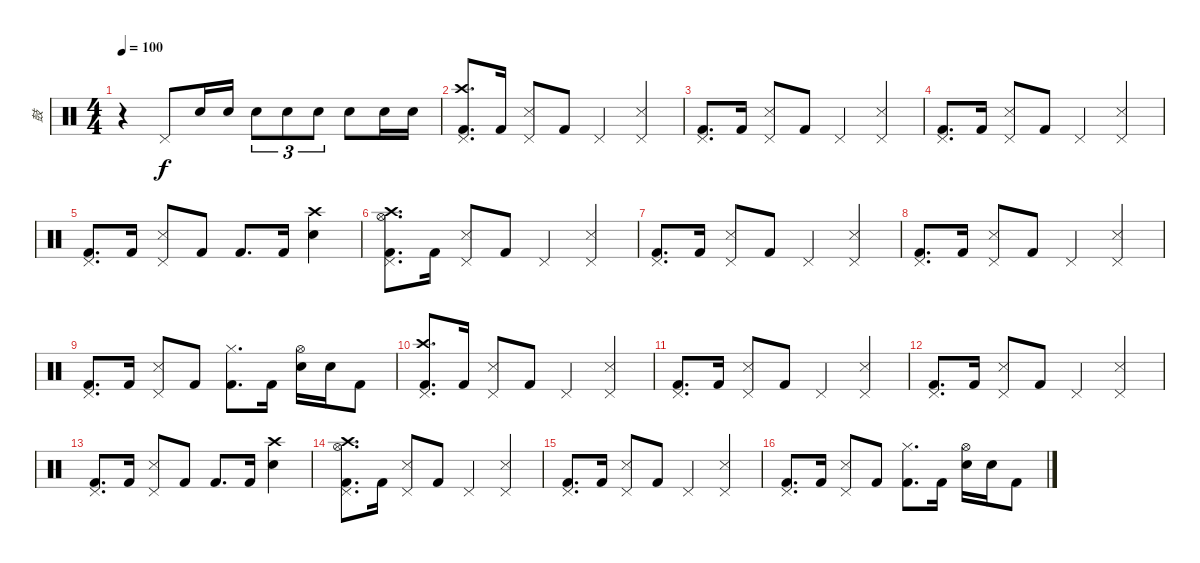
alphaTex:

\track ("鼓" "鼓") {instrument percussion}
\staff {score}
\articulation defaults
\ts (4 4)
\tempo 100
\clef neutral
\ks c
r.4{dy f} "Pedal Hi-Hat (hit)".8 "Snare (hit) 2".16 "Snare (hit) 2".16 "Snare (hit) 2".8{tu (3 2)} "Snare (hit) 2".8{tu (3 2)} "Snare (hit) 2".8{tu (3 2)} "Snare (hit) 2".8 "Electric Snare (hit)".16 "Electric Snare (hit)".16 |
("Crash high (hit)" "Pedal Hi-Hat (hit)" "Kick (hit) 2").8{d} "Kick (hit) 2".16 ("Pedal Hi-Hat (hit)" "Metronome (hit)").8 "Kick (hit) 2".8 "Pedal Hi-Hat (hit)".4 ("Pedal Hi-Hat (hit)" "Metronome (hit)").4 |
("Pedal Hi-Hat (hit)" "Kick (hit) 2").8{d} "Kick (hit) 2".16 ("Pedal Hi-Hat (hit)" "Metronome (hit)").8 "Kick (hit) 2".8 "Pedal Hi-Hat (hit)".4 ("Pedal Hi-Hat (hit)" "Metronome (hit)").4 |
("Pedal Hi-Hat (hit)" "Kick (hit) 2").8{d} "Kick (hit) 2".16 ("Pedal Hi-Hat (hit)" "Metronome (hit)").8 "Kick (hit) 2".8 "Pedal Hi-Hat (hit)".4 ("Pedal Hi-Hat (hit)" "Metronome (hit)").4 |
("Pedal Hi-Hat (hit)" "Kick (hit) 2").8{d} "Kick (hit) 2".16 ("Pedal Hi-Hat (hit)" "Metronome (hit)").8 "Kick (hit) 2".8 "Kick (hit) 2".8{d} "Kick (hit) 2".16 ("Crash high (hit)" "Electric Snare (hit)").4 |
("Crash high (hit)" "Hi-Hat (open)" "Pedal Hi-Hat (hit)" "Kick (hit) 2").8{d} "Kick (hit) 2".16 ("Pedal Hi-Hat (hit)" "Metronome (hit)").8 "Kick (hit) 2".8 "Pedal Hi-Hat (hit)".4 ("Pedal Hi-Hat (hit)" "Metronome (hit)").4 |
("Pedal Hi-Hat (hit)" "Kick (hit) 2").8{d} "Kick (hit) 2".16 ("Pedal Hi-Hat (hit)" "Metronome (hit)").8 "Kick (hit) 2".8 "Pedal Hi-Hat (hit)".4 ("Pedal Hi-Hat (hit)" "Metronome (hit)").4 |
("Pedal Hi-Hat (hit)" "Kick (hit) 2").8{d} "Kick (hit) 2".16 ("Pedal Hi-Hat (hit)" "Metronome (hit)").8 "Kick (hit) 2".8 "Pedal Hi-Hat (hit)".4 ("Pedal Hi-Hat (hit)" "Metronome (hit)").4 |
("Pedal Hi-Hat (hit)" "Kick (hit) 2").8{d} "Kick (hit) 2".16 ("Pedal Hi-Hat (hit)" "Metronome (hit)").8 "Kick (hit) 2".8 ("Hi-Hat (closed)" "Kick (hit) 2").8{d} "Kick (hit) 2".16 ("Hi-Hat (open)" "Electric Snare (hit)").16 "Snare (hit) 2".16 "Kick (hit) 2".8 |
("Crash high (hit)" "Pedal Hi-Hat (hit)" "Kick (hit) 2").8{d} "Kick (hit) 2".16 ("Pedal Hi-Hat (hit)" "Metronome (hit)").8 "Kick (hit) 2".8 "Pedal Hi-Hat (hit)".4 ("Pedal Hi-Hat (hit)" "Metronome (hit)").4 |
("Pedal Hi-Hat (hit)" "Kick (hit) 2").8{d} "Kick (hit) 2".16 ("Pedal Hi-Hat (hit)" "Metronome (hit)").8 "Kick (hit) 2".8 "Pedal Hi-Hat (hit)".4 ("Pedal Hi-Hat (hit)" "Metronome (hit)").4 |
("Pedal Hi-Hat (hit)" "Kick (hit) 2").8{d} "Kick (hit) 2".16 ("Pedal Hi-Hat (hit)" "Metronome (hit)").8 "Kick (hit) 2".8 "Pedal Hi-Hat (hit)".4 ("Pedal Hi-Hat (hit)" "Metronome (hit)").4 |
("Pedal Hi-Hat (hit)" "Kick (hit) 2").8{d} "Kick (hit) 2".16 ("Pedal Hi-Hat (hit)" "Metronome (hit)").8 "Kick (hit) 2".8 "Kick (hit) 2".8{d} "Kick (hit) 2".16 ("Crash high (hit)" "Electric Snare (hit)").4 |
("Crash high (hit)" "Hi-Hat (open)" "Pedal Hi-Hat (hit)" "Kick (hit) 2").8{d} "Kick (hit) 2".16 ("Pedal Hi-Hat (hit)" "Metronome (hit)").8 "Kick (hit) 2".8 "Pedal Hi-Hat (hit)".4 ("Pedal Hi-Hat (hit)" "Metronome (hit)").4 |
("Pedal Hi-Hat (hit)" "Kick (hit) 2").8{d} "Kick (hit) 2".16 ("Pedal Hi-Hat (hit)" "Metronome (hit)").8 "Kick (hit) 2".8 "Pedal Hi-Hat (hit)".4 ("Pedal Hi-Hat (hit)" "Metronome (hit)").4 |
("Pedal Hi-Hat (hit)" "Kick (hit) 2").8{d} "Kick (hit) 2".16 ("Pedal Hi-Hat (hit)" "Metronome (hit)").8 "Kick (hit) 2".8 ("Hi-Hat (closed)" "Kick (hit) 2").8{d} "Kick (hit) 2".16 ("Hi-Hat (open)" "Electric Snare (hit)").16 "Snare (hit) 2".16 "Kick (hit) 2".8
